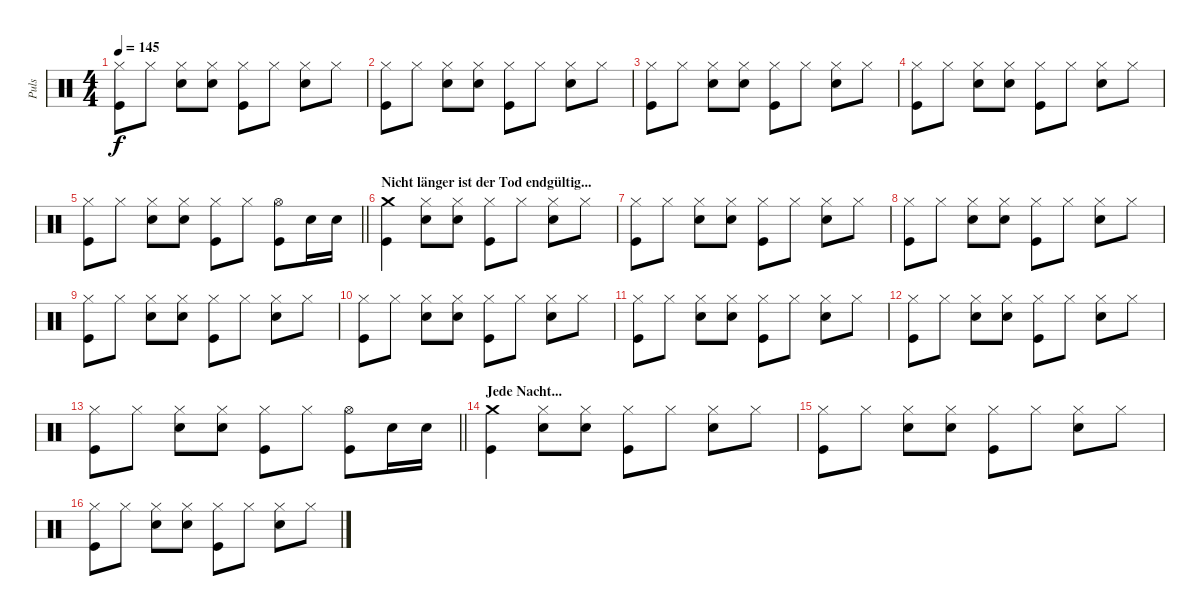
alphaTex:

\track ("Puls" "Puls") {instrument percussion}
\staff {score}
\articulation defaults
\ts (4 4)
\tempo 145
\clef neutral
\ks c
("Hi-Hat (closed)" "Kick (hit)").8{dy f} "Hi-Hat (closed)".8 ("Hi-Hat (closed)" "Snare (hit) 2").8 ("Hi-Hat (closed)" "Snare (hit) 2").8 ("Hi-Hat (closed)" "Kick (hit)").8 "Hi-Hat (closed)".8 ("Hi-Hat (closed)" "Snare (hit) 2").8 "Hi-Hat (closed)".8 |
("Hi-Hat (closed)" "Kick (hit)").8 "Hi-Hat (closed)".8 ("Hi-Hat (closed)" "Snare (hit) 2").8 ("Hi-Hat (closed)" "Snare (hit) 2").8 ("Hi-Hat (closed)" "Kick (hit)").8 "Hi-Hat (closed)".8 ("Hi-Hat (closed)" "Snare (hit) 2").8 "Hi-Hat (closed)".8 |
("Hi-Hat (closed)" "Kick (hit)").8 "Hi-Hat (closed)".8 ("Hi-Hat (closed)" "Snare (hit) 2").8 ("Hi-Hat (closed)" "Snare (hit) 2").8 ("Hi-Hat (closed)" "Kick (hit)").8 "Hi-Hat (closed)".8 ("Hi-Hat (closed)" "Snare (hit) 2").8 "Hi-Hat (closed)".8 |
("Hi-Hat (closed)" "Kick (hit)").8 "Hi-Hat (closed)".8 ("Hi-Hat (closed)" "Snare (hit) 2").8 ("Hi-Hat (closed)" "Snare (hit) 2").8 ("Hi-Hat (closed)" "Kick (hit)").8 "Hi-Hat (closed)".8 ("Hi-Hat (closed)" "Snare (hit) 2").8 "Hi-Hat (closed)".8 |
\barLineRight lightlight
("Hi-Hat (closed)" "Kick (hit)").8 "Hi-Hat (closed)".8 ("Hi-Hat (closed)" "Snare (hit) 2").8 ("Hi-Hat (closed)" "Snare (hit) 2").8 ("Hi-Hat (closed)" "Kick (hit)").8 "Hi-Hat (closed)".8 ("Kick (hit)" "Hi-Hat (open)").8 "Snare (hit) 2".16 "Snare (hit) 2".16 |
\section ("" "Nicht länger ist der Tod endgültig...")
("Crash medium (hit)" "Kick (hit)").4 ("Hi-Hat (closed)" "Snare (hit) 2").8 ("Hi-Hat (closed)" "Snare (hit) 2").8 ("Hi-Hat (closed)" "Kick (hit)").8 "Hi-Hat (closed)".8 ("Hi-Hat (closed)" "Snare (hit) 2").8 "Hi-Hat (closed)".8 |
("Hi-Hat (closed)" "Kick (hit)").8 "Hi-Hat (closed)".8 ("Hi-Hat (closed)" "Snare (hit) 2").8 ("Hi-Hat (closed)" "Snare (hit) 2").8 ("Hi-Hat (closed)" "Kick (hit)").8 "Hi-Hat (closed)".8 ("Hi-Hat (closed)" "Snare (hit) 2").8 "Hi-Hat (closed)".8 |
("Hi-Hat (closed)" "Kick (hit)").8 "Hi-Hat (closed)".8 ("Hi-Hat (closed)" "Snare (hit) 2").8 ("Hi-Hat (closed)" "Snare (hit) 2").8 ("Hi-Hat (closed)" "Kick (hit)").8 "Hi-Hat (closed)".8 ("Hi-Hat (closed)" "Snare (hit) 2").8 "Hi-Hat (closed)".8 |
("Hi-Hat (closed)" "Kick (hit)").8 "Hi-Hat (closed)".8 ("Hi-Hat (closed)" "Snare (hit) 2").8 ("Hi-Hat (closed)" "Snare (hit) 2").8 ("Hi-Hat (closed)" "Kick (hit)").8 "Hi-Hat (closed)".8 ("Hi-Hat (closed)" "Snare (hit) 2").8 "Hi-Hat (closed)".8 |
("Hi-Hat (closed)" "Kick (hit)").8 "Hi-Hat (closed)".8 ("Hi-Hat (closed)" "Snare (hit) 2").8 ("Hi-Hat (closed)" "Snare (hit) 2").8 ("Hi-Hat (closed)" "Kick (hit)").8 "Hi-Hat (closed)".8 ("Hi-Hat (closed)" "Snare (hit) 2").8 "Hi-Hat (closed)".8 |
("Hi-Hat (closed)" "Kick (hit)").8 "Hi-Hat (closed)".8 ("Hi-Hat (closed)" "Snare (hit) 2").8 ("Hi-Hat (closed)" "Snare (hit) 2").8 ("Hi-Hat (closed)" "Kick (hit)").8 "Hi-Hat (closed)".8 ("Hi-Hat (closed)" "Snare (hit) 2").8 "Hi-Hat (closed)".8 |
("Hi-Hat (closed)" "Kick (hit)").8 "Hi-Hat (closed)".8 ("Hi-Hat (closed)" "Snare (hit) 2").8 ("Hi-Hat (closed)" "Snare (hit) 2").8 ("Hi-Hat (closed)" "Kick (hit)").8 "Hi-Hat (closed)".8 ("Hi-Hat (closed)" "Snare (hit) 2").8 "Hi-Hat (closed)".8 |
\barLineRight lightlight
("Hi-Hat (closed)" "Kick (hit)").8 "Hi-Hat (closed)".8 ("Hi-Hat (closed)" "Snare (hit) 2").8 ("Hi-Hat (closed)" "Snare (hit) 2").8 ("Hi-Hat (closed)" "Kick (hit)").8 "Hi-Hat (closed)".8 ("Kick (hit)" "Hi-Hat (open)").8 "Snare (hit) 2".16 "Snare (hit) 2".16 |
\section ("" "Jede Nacht...")
("Crash medium (hit)" "Kick (hit)").4 ("Hi-Hat (closed)" "Snare (hit) 2").8 ("Hi-Hat (closed)" "Snare (hit) 2").8 ("Hi-Hat (closed)" "Kick (hit)").8 "Hi-Hat (closed)".8 ("Hi-Hat (closed)" "Snare (hit) 2").8 "Hi-Hat (closed)".8 |
("Hi-Hat (closed)" "Kick (hit)").8 "Hi-Hat (closed)".8 ("Hi-Hat (closed)" "Snare (hit) 2").8 ("Hi-Hat (closed)" "Snare (hit) 2").8 ("Hi-Hat (closed)" "Kick (hit)").8 "Hi-Hat (closed)".8 ("Hi-Hat (closed)" "Snare (hit) 2").8 "Hi-Hat (closed)".8 |
("Hi-Hat (closed)" "Kick (hit)").8 "Hi-Hat (closed)".8 ("Hi-Hat (closed)" "Snare (hit) 2").8 ("Hi-Hat (closed)" "Snare (hit) 2").8 ("Hi-Hat (closed)" "Kick (hit)").8 "Hi-Hat (closed)".8 ("Hi-Hat (closed)" "Snare (hit) 2").8 "Hi-Hat (closed)".8
